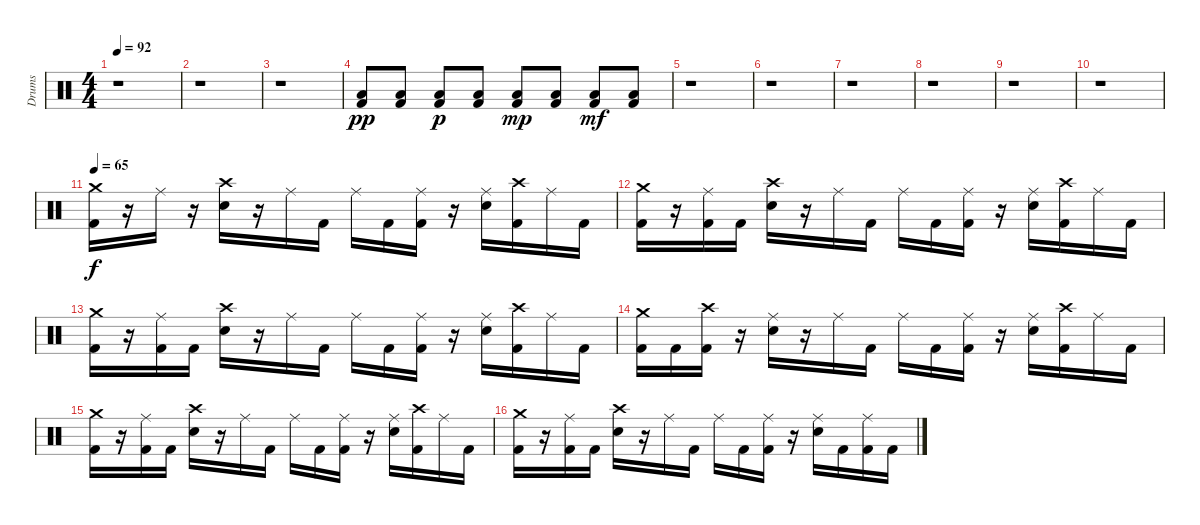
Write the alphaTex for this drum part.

\track ("Drums" "Drums") {instrument percussion}
\staff {score}
\articulation defaults
\ts (4 4)
\tempo 92
\clef neutral
\ks c
r.1{dy f} |
r.1 |
\section ("" "")
r.1 |
("Low Floor Tom (hit)" "Kick (hit) 2").8{dy pp} ("Low Floor Tom (hit)" "Kick (hit) 2").8 ("Low Floor Tom (hit)" "Kick (hit) 2").8{dy p} ("Low Floor Tom (hit)" "Kick (hit) 2").8 ("Low Floor Tom (hit)" "Kick (hit) 2").8{dy mp} ("Low Floor Tom (hit)" "Kick (hit) 2").8 ("Low Floor Tom (hit)" "Kick (hit) 2").8{dy mf} ("Low Floor Tom (hit)" "Kick (hit) 2").8 |
r.1 |
r.1 |
\section ("" "")
r.1 |
r.1 |
r.1 |
r.1 |
\section ("" "")
\tempo 65
("Crash medium (hit)" "Kick (hit) 2").16{dy f} r.16 "Ride (middle)".16 r.16 ("Crash high (hit)" "Electric Snare (hit)").16 r.16 "Ride (middle)".16 "Kick (hit) 2".16 "Ride (middle)".16 "Kick (hit) 2".16 ("Ride (middle)" "Kick (hit) 2").16 r.16 ("Ride (middle)" "Electric Snare (hit)").16 ("Crash high (hit)" "Kick (hit) 2").16 "Ride (middle)".16 "Kick (hit) 2".16 |
("Crash medium (hit)" "Kick (hit) 2").16 r.16 ("Ride (middle)" "Kick (hit) 2").16 "Kick (hit) 2".16 ("Crash high (hit)" "Electric Snare (hit)").16 r.16 "Ride (middle)".16 "Kick (hit) 2".16 "Ride (middle)".16 "Kick (hit) 2".16 ("Ride (middle)" "Kick (hit) 2").16 r.16 ("Ride (middle)" "Electric Snare (hit)").16 ("Crash high (hit)" "Kick (hit) 2").16 "Ride (middle)".16 "Kick (hit) 2".16 |
("Crash medium (hit)" "Kick (hit) 2").16 r.16 ("Ride (middle)" "Kick (hit) 2").16 "Kick (hit) 2".16 ("Crash high (hit)" "Electric Snare (hit)").16 r.16 "Ride (middle)".16 "Kick (hit) 2".16 "Ride (middle)".16 "Kick (hit) 2".16 ("Ride (middle)" "Kick (hit) 2").16 r.16 ("Ride (middle)" "Electric Snare (hit)").16 ("Crash high (hit)" "Kick (hit) 2").16 "Ride (middle)".16 "Kick (hit) 2".16 |
("Crash medium (hit)" "Kick (hit) 2").16 "Kick (hit) 2".16 ("Crash high (hit)" "Kick (hit) 2").16 r.16 ("Ride (middle)" "Electric Snare (hit)").16 r.16 "Ride (middle)".16 "Kick (hit) 2".16 "Ride (middle)".16 "Kick (hit) 2".16 ("Ride (middle)" "Kick (hit) 2").16 r.16 ("Ride (middle)" "Electric Snare (hit)").16 ("Crash high (hit)" "Kick (hit) 2").16 "Ride (middle)".16 "Kick (hit) 2".16 |
("Crash medium (hit)" "Kick (hit) 2").16 r.16 ("Ride (middle)" "Kick (hit) 2").16 "Kick (hit) 2".16 ("Crash high (hit)" "Electric Snare (hit)").16 r.16 "Ride (middle)".16 "Kick (hit) 2".16 "Ride (middle)".16 "Kick (hit) 2".16 ("Ride (middle)" "Kick (hit) 2").16 r.16 ("Ride (middle)" "Electric Snare (hit)").16 ("Crash high (hit)" "Kick (hit) 2").16 "Ride (middle)".16 "Kick (hit) 2".16 |
("Crash medium (hit)" "Kick (hit) 2").16 r.16 ("Ride (middle)" "Kick (hit) 2").16 "Kick (hit) 2".16 ("Crash high (hit)" "Electric Snare (hit)").16 r.16 "Ride (middle)".16 "Kick (hit) 2".16 "Ride (middle)".16 "Kick (hit) 2".16 ("Ride (middle)" "Kick (hit) 2").16 r.16 ("Ride (middle)" "Electric Snare (hit)").16 "Kick (hit) 2".16 ("Ride (middle)" "Kick (hit) 2").16 "Kick (hit) 2".16
